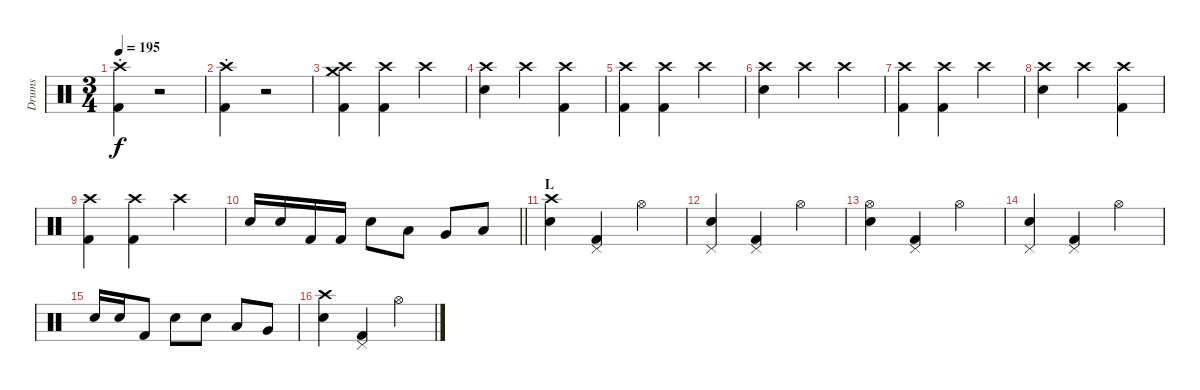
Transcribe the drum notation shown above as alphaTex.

\track ("Drums" "Drums") {instrument percussion}
\staff {score}
\articulation defaults
\ts (3 4)
\tempo 195
\clef neutral
\ks c
("Crash high (hit)"{st} "Kick (hit) 2").4{dy f} r.2{volume 0} |
("Crash high (hit)"{st} "Kick (hit) 2").4{volume 14} r.2{volume 0} |
("Crash medium (hit)" "Crash high (hit)" "Kick (hit) 2").4{volume 14} ("Crash high (hit)" "Kick (hit) 2").4 "Crash high (hit)".4 |
("Crash high (hit)" "Electric Snare (hit)").4 "Crash high (hit)".4 ("Crash high (hit)" "Kick (hit) 2").4 |
("Crash high (hit)" "Kick (hit) 2").4 ("Crash high (hit)" "Kick (hit) 2").4 "Crash high (hit)".4 |
("Crash high (hit)" "Electric Snare (hit)").4 "Crash high (hit)".4 "Crash high (hit)".4 |
("Crash high (hit)" "Kick (hit) 2").4 ("Crash high (hit)" "Kick (hit) 2").4 "Crash high (hit)".4 |
("Crash high (hit)" "Electric Snare (hit)").4 "Crash high (hit)".4 ("Crash high (hit)" "Kick (hit) 2").4 |
("Crash high (hit)" "Kick (hit) 2").4 ("Crash high (hit)" "Kick (hit) 2").4 "Crash high (hit)".4 |
\barLineRight lightlight "Electric Snare (hit)".16 "Electric Snare (hit)".16 "Kick (hit) 2".16 "Kick (hit) 2".16 "Electric Snare (hit)".8 "Low Tom (hit)".8 "Very Low Tom (hit)".8 "Low Floor Tom (hit)".8
|
\section ("" "L")
("Crash high (hit)" "Electric Snare (hit)").4 ("Pedal Hi-Hat (hit)" "Kick (hit) 2").4 "Hi-Hat (open)".4 |
("Pedal Hi-Hat (hit)" "Electric Snare (hit)").4 ("Pedal Hi-Hat (hit)" "Kick (hit) 2").4 "Hi-Hat (open)".4 |
("Hi-Hat (open)" "Electric Snare (hit)").4 ("Pedal Hi-Hat (hit)" "Kick (hit) 2").4 "Hi-Hat (open)".4 |
("Pedal Hi-Hat (hit)" "Electric Snare (hit)").4 ("Pedal Hi-Hat (hit)" "Kick (hit) 2").4 "Hi-Hat (open)".4 |
"Electric Snare (hit)".16 "Electric Snare (hit)".16 "Kick (hit) 2".8 "Electric Snare (hit)".8 "Electric Snare (hit)".8 "Low Tom (hit)".8 "Very Low Tom (hit)".8 |
("Crash high (hit)" "Electric Snare (hit)").4 ("Pedal Hi-Hat (hit)" "Kick (hit) 2").4 "Hi-Hat (open)".4
